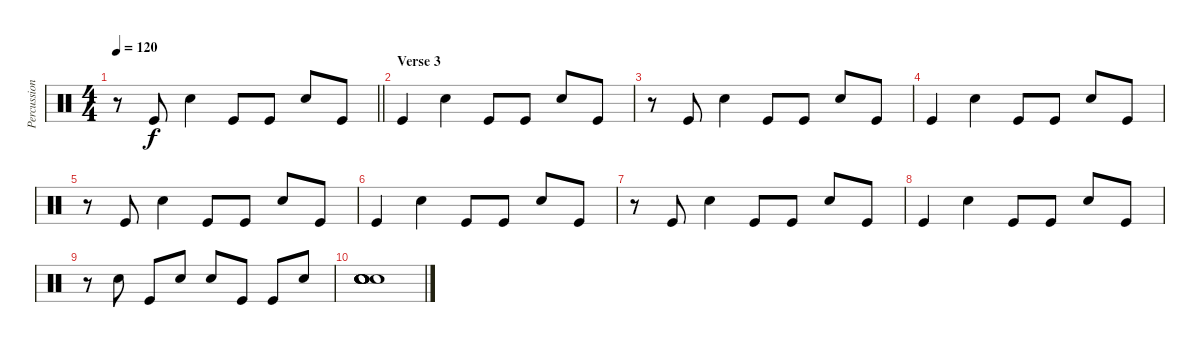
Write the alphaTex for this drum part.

\track ("Percussion" "Percussion") {instrument percussion}
\staff {score}
\articulation defaults
\ts (4 4)
\tempo 120
\clef neutral
\barLineRight lightlight
\ks c
r.8{dy f} "Kick (hit)".8 "Snare (hit) 2".4 "Kick (hit)".8 "Kick (hit)".8 "Snare (hit) 2".8 "Kick (hit)".8 |
\section ("" "Verse 3")
"Kick (hit)".4 "Snare (hit) 2".4 "Kick (hit)".8 "Kick (hit)".8 "Snare (hit) 2".8 "Kick (hit)".8 |
r.8 "Kick (hit)".8 "Snare (hit) 2".4 "Kick (hit)".8 "Kick (hit)".8 "Snare (hit) 2".8 "Kick (hit)".8 |
"Kick (hit)".4 "Snare (hit) 2".4 "Kick (hit)".8 "Kick (hit)".8 "Snare (hit) 2".8 "Kick (hit)".8 |
r.8 "Kick (hit)".8 "Snare (hit) 2".4 "Kick (hit)".8 "Kick (hit)".8 "Snare (hit) 2".8 "Kick (hit)".8 |
"Kick (hit)".4 "Snare (hit) 2".4 "Kick (hit)".8 "Kick (hit)".8 "Snare (hit) 2".8 "Kick (hit)".8 |
r.8 "Kick (hit)".8 "Snare (hit) 2".4 "Kick (hit)".8 "Kick (hit)".8 "Snare (hit) 2".8 "Kick (hit)".8 |
"Kick (hit)".4 "Snare (hit) 2".4 "Kick (hit)".8 "Kick (hit)".8 "Snare (hit) 2".8 "Kick (hit)".8 |
r.8 "Snare (hit) 2".8 "Kick (hit)".8 "Snare (hit) 2".8 "Snare (hit) 2".8 "Kick (hit)".8 "Kick (hit)".8 "Snare (hit) 2".8 |
("Snare (hit) 2" "Snare (hit) 2" "Snare (hit) 2" "Snare (hit) 2" "Snare (hit) 2" "Snare (hit) 2").1
